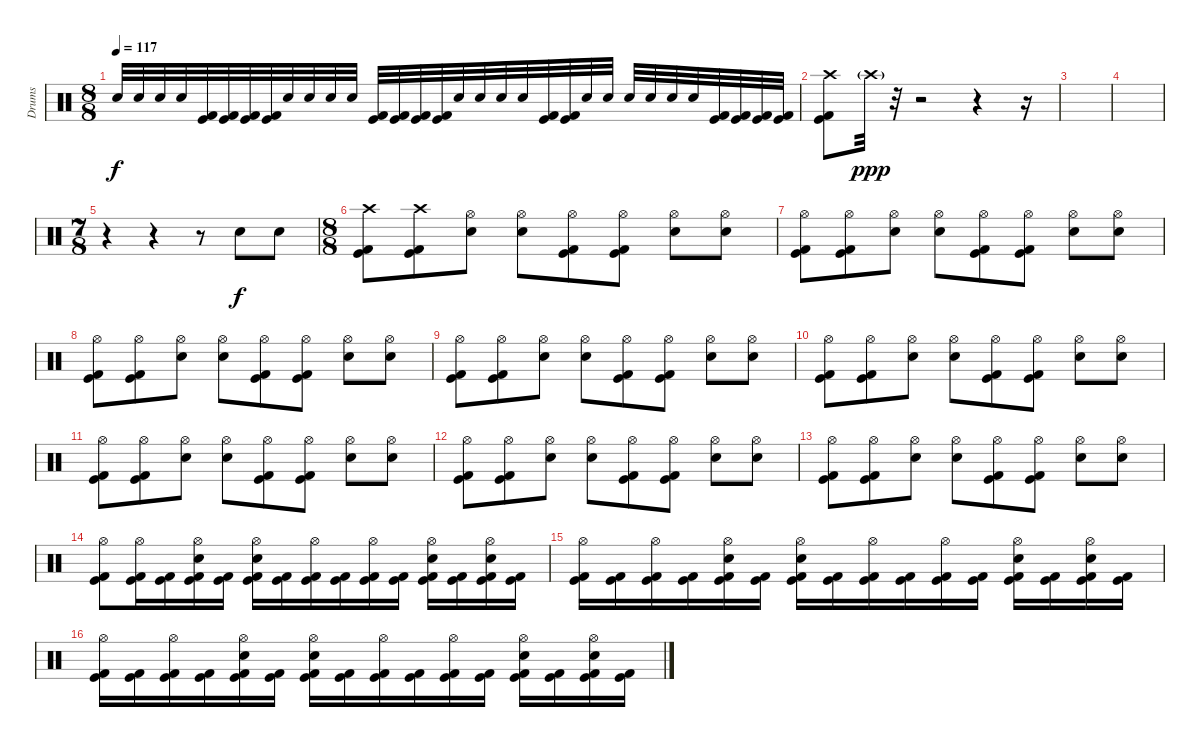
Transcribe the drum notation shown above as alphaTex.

\track ("Drums" "Drums") {instrument percussion}
\staff {score}
\articulation defaults
\ts (8 8)
\tempo 117
\clef neutral
\ks c "Electric Snare (hit)".32{dy f} "Electric Snare (hit)".32 "Electric Snare (hit)".32 "Electric Snare (hit)".32
("Kick (hit)" "Kick (hit) 2").32 ("Kick (hit)" "Kick (hit) 2").32 ("Kick (hit)" "Kick (hit) 2").32 ("Kick (hit)" "Kick (hit) 2").32 "Electric Snare (hit)".32 "Electric Snare (hit)".32 "Electric Snare (hit)".32 "Electric Snare (hit)".32 ("Kick (hit)" "Kick (hit) 2").32 ("Kick (hit)" "Kick (hit) 2").32 ("Kick (hit)" "Kick (hit) 2").32 ("Kick (hit)" "Kick (hit) 2").32 "Electric Snare (hit)".32 "Electric Snare (hit)".32 "Electric Snare (hit)".32 "Electric Snare (hit)".32 ("Kick (hit)" "Kick (hit) 2").32 ("Kick (hit)" "Kick (hit) 2").32 "Electric Snare (hit)".32 "Electric Snare (hit)".32 "Electric Snare (hit)".32 "Electric Snare (hit)".32 "Electric Snare (hit)".32 "Electric Snare (hit)".32 ("Kick (hit)" "Kick (hit) 2").32 ("Kick (hit)" "Kick (hit) 2").32 ("Kick (hit)" "Kick (hit) 2").32 ("Kick (hit)" "Kick (hit) 2").32 |
("Crash high (hit)" "Kick (hit)" "Kick (hit) 2").8 "Crash high (hit)"{g}.32{dy ppp} r.32 r.2 r.4 r.16 |
|
|
\ts (7 8)
r.4 r.4 r.8 "Electric Snare (hit)".8{dy f} "Electric Snare (hit)".8 |
\ts (8 8)
("Crash high (hit)" "Kick (hit)" "Kick (hit) 2").8 ("Crash high (hit)" "Kick (hit)" "Kick (hit) 2").8 ("Hi-Hat (open)" "Electric Snare (hit)").8 ("Hi-Hat (open)" "Electric Snare (hit)").8 ("Hi-Hat (open)" "Kick (hit)" "Kick (hit) 2").8 ("Hi-Hat (open)" "Kick (hit)" "Kick (hit) 2").8 ("Hi-Hat (open)" "Electric Snare (hit)").8 ("Hi-Hat (open)" "Electric Snare (hit)").8 |
("Hi-Hat (open)" "Kick (hit)" "Kick (hit) 2").8 ("Hi-Hat (open)" "Kick (hit)" "Kick (hit) 2").8 ("Hi-Hat (open)" "Electric Snare (hit)").8 ("Hi-Hat (open)" "Electric Snare (hit)").8 ("Hi-Hat (open)" "Kick (hit)" "Kick (hit) 2").8 ("Hi-Hat (open)" "Kick (hit)" "Kick (hit) 2").8 ("Hi-Hat (open)" "Electric Snare (hit)").8 ("Hi-Hat (open)" "Electric Snare (hit)").8 |
("Hi-Hat (open)" "Kick (hit)" "Kick (hit) 2").8 ("Hi-Hat (open)" "Kick (hit)" "Kick (hit) 2").8 ("Hi-Hat (open)" "Electric Snare (hit)").8 ("Hi-Hat (open)" "Electric Snare (hit)").8 ("Hi-Hat (open)" "Kick (hit)" "Kick (hit) 2").8 ("Hi-Hat (open)" "Kick (hit)" "Kick (hit) 2").8 ("Hi-Hat (open)" "Electric Snare (hit)").8 ("Hi-Hat (open)" "Electric Snare (hit)").8 |
("Hi-Hat (open)" "Kick (hit)" "Kick (hit) 2").8 ("Hi-Hat (open)" "Kick (hit)" "Kick (hit) 2").8 ("Hi-Hat (open)" "Electric Snare (hit)").8 ("Hi-Hat (open)" "Electric Snare (hit)").8 ("Hi-Hat (open)" "Kick (hit)" "Kick (hit) 2").8 ("Hi-Hat (open)" "Kick (hit)" "Kick (hit) 2").8 ("Hi-Hat (open)" "Electric Snare (hit)").8 ("Hi-Hat (open)" "Electric Snare (hit)").8 |
("Hi-Hat (open)" "Kick (hit)" "Kick (hit) 2").8 ("Hi-Hat (open)" "Kick (hit)" "Kick (hit) 2").8 ("Hi-Hat (open)" "Electric Snare (hit)").8 ("Hi-Hat (open)" "Electric Snare (hit)").8 ("Hi-Hat (open)" "Kick (hit)" "Kick (hit) 2").8 ("Hi-Hat (open)" "Kick (hit)" "Kick (hit) 2").8 ("Hi-Hat (open)" "Electric Snare (hit)").8 ("Hi-Hat (open)" "Electric Snare (hit)").8 |
("Hi-Hat (open)" "Kick (hit)" "Kick (hit) 2").8 ("Hi-Hat (open)" "Kick (hit)" "Kick (hit) 2").8 ("Hi-Hat (open)" "Electric Snare (hit)").8 ("Hi-Hat (open)" "Electric Snare (hit)").8 ("Hi-Hat (open)" "Kick (hit)" "Kick (hit) 2").8 ("Hi-Hat (open)" "Kick (hit)" "Kick (hit) 2").8 ("Hi-Hat (open)" "Electric Snare (hit)").8 ("Hi-Hat (open)" "Electric Snare (hit)").8 |
("Hi-Hat (open)" "Kick (hit)" "Kick (hit) 2").8 ("Hi-Hat (open)" "Kick (hit)" "Kick (hit) 2").8 ("Hi-Hat (open)" "Electric Snare (hit)").8 ("Hi-Hat (open)" "Electric Snare (hit)").8 ("Hi-Hat (open)" "Kick (hit)" "Kick (hit) 2").8 ("Hi-Hat (open)" "Kick (hit)" "Kick (hit) 2").8 ("Hi-Hat (open)" "Electric Snare (hit)").8 ("Hi-Hat (open)" "Electric Snare (hit)").8 |
("Hi-Hat (open)" "Kick (hit)" "Kick (hit) 2").8 ("Hi-Hat (open)" "Kick (hit)" "Kick (hit) 2").8 ("Hi-Hat (open)" "Electric Snare (hit)").8 ("Hi-Hat (open)" "Electric Snare (hit)").8 ("Hi-Hat (open)" "Kick (hit)" "Kick (hit) 2").8 ("Hi-Hat (open)" "Kick (hit)" "Kick (hit) 2").8 ("Hi-Hat (open)" "Electric Snare (hit)").8 ("Hi-Hat (open)" "Electric Snare (hit)").8 |
("Hi-Hat (open)" "Kick (hit)" "Kick (hit) 2").8 ("Hi-Hat (open)" "Kick (hit)" "Kick (hit) 2").16 ("Kick (hit)" "Kick (hit) 2").16 ("Hi-Hat (open)" "Electric Snare (hit)" "Kick (hit)" "Kick (hit) 2").16 ("Kick (hit)" "Kick (hit) 2").16 ("Hi-Hat (open)" "Electric Snare (hit)" "Kick (hit)" "Kick (hit) 2").16 ("Kick (hit)" "Kick (hit) 2").16 ("Hi-Hat (open)" "Kick (hit)" "Kick (hit) 2").16 ("Kick (hit)" "Kick (hit) 2").16 ("Hi-Hat (open)" "Kick (hit)" "Kick (hit) 2").16 ("Kick (hit)" "Kick (hit) 2").16 ("Hi-Hat (open)" "Electric Snare (hit)" "Kick (hit)" "Kick (hit) 2").16 ("Kick (hit)" "Kick (hit) 2").16 ("Hi-Hat (open)" "Electric Snare (hit)" "Kick (hit)" "Kick (hit) 2").16 ("Kick (hit)" "Kick (hit) 2").16 |
("Hi-Hat (open)" "Kick (hit)" "Kick (hit) 2").16 ("Kick (hit)" "Kick (hit) 2").16 ("Hi-Hat (open)" "Kick (hit)" "Kick (hit) 2").16 ("Kick (hit)" "Kick (hit) 2").16 ("Hi-Hat (open)" "Electric Snare (hit)" "Kick (hit)" "Kick (hit) 2").16 ("Kick (hit)" "Kick (hit) 2").16 ("Hi-Hat (open)" "Electric Snare (hit)" "Kick (hit)" "Kick (hit) 2").16 ("Kick (hit)" "Kick (hit) 2").16 ("Hi-Hat (open)" "Kick (hit)" "Kick (hit) 2").16 ("Kick (hit)" "Kick (hit) 2").16 ("Hi-Hat (open)" "Kick (hit)" "Kick (hit) 2").16 ("Kick (hit)" "Kick (hit) 2").16 ("Hi-Hat (open)" "Electric Snare (hit)" "Kick (hit)" "Kick (hit) 2").16 ("Kick (hit)" "Kick (hit) 2").16 ("Hi-Hat (open)" "Electric Snare (hit)" "Kick (hit)" "Kick (hit) 2").16 ("Kick (hit)" "Kick (hit) 2").16 |
("Hi-Hat (open)" "Kick (hit)" "Kick (hit) 2").16 ("Kick (hit)" "Kick (hit) 2").16 ("Hi-Hat (open)" "Kick (hit)" "Kick (hit) 2").16 ("Kick (hit)" "Kick (hit) 2").16 ("Hi-Hat (open)" "Electric Snare (hit)" "Kick (hit)" "Kick (hit) 2").16 ("Kick (hit)" "Kick (hit) 2").16 ("Hi-Hat (open)" "Electric Snare (hit)" "Kick (hit)" "Kick (hit) 2").16 ("Kick (hit)" "Kick (hit) 2").16 ("Hi-Hat (open)" "Kick (hit)" "Kick (hit) 2").16 ("Kick (hit)" "Kick (hit) 2").16 ("Hi-Hat (open)" "Kick (hit)" "Kick (hit) 2").16 ("Kick (hit)" "Kick (hit) 2").16 ("Hi-Hat (open)" "Electric Snare (hit)" "Kick (hit)" "Kick (hit) 2").16 ("Kick (hit)" "Kick (hit) 2").16 ("Hi-Hat (open)" "Electric Snare (hit)" "Kick (hit)" "Kick (hit) 2").16 ("Kick (hit)" "Kick (hit) 2").16
